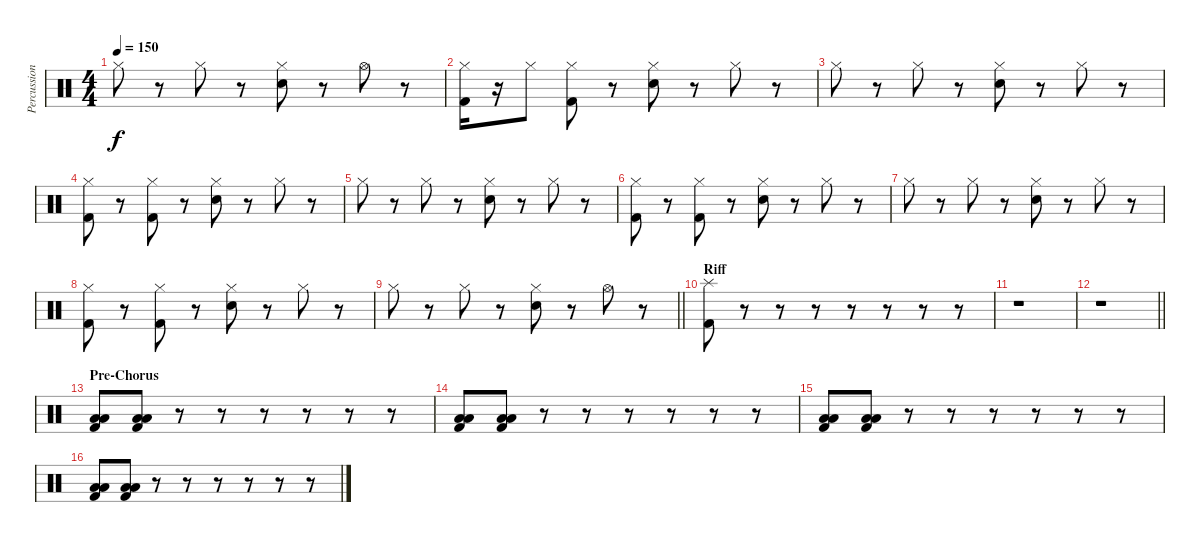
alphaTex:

\track ("Percussion" "Percussion") {instrument percussion}
\staff {score}
\articulation defaults
\ts (4 4)
\tempo 150
\clef neutral
\ks c "Hi-Hat (closed)".8{dy f}
r.8 "Hi-Hat (closed)".8 r.8 ("Hi-Hat (closed)" "Snare (hit) 2").8 r.8 "Hi-Hat (open)".8 r.8 |
("Hi-Hat (closed)" "Kick (hit) 2").16 r.16 "Hi-Hat (closed)".8 ("Hi-Hat (closed)" "Kick (hit) 2").8 r.8 ("Hi-Hat (closed)" "Snare (hit) 2").8 r.8 "Hi-Hat (closed)".8 r.8 |
"Hi-Hat (closed)".8 r.8 "Hi-Hat (closed)".8 r.8 ("Hi-Hat (closed)" "Snare (hit) 2").8 r.8 "Hi-Hat (closed)".8 r.8 |
("Hi-Hat (closed)" "Kick (hit) 2").8 r.8 ("Hi-Hat (closed)" "Kick (hit) 2").8 r.8 ("Hi-Hat (closed)" "Snare (hit) 2").8 r.8 "Hi-Hat (closed)".8 r.8 |
"Hi-Hat (closed)".8 r.8 "Hi-Hat (closed)".8 r.8 ("Hi-Hat (closed)" "Snare (hit) 2").8 r.8 "Hi-Hat (closed)".8 r.8 |
("Hi-Hat (closed)" "Kick (hit) 2").8 r.8 ("Hi-Hat (closed)" "Kick (hit) 2").8 r.8 ("Hi-Hat (closed)" "Snare (hit) 2").8 r.8 "Hi-Hat (closed)".8 r.8 |
"Hi-Hat (closed)".8 r.8 "Hi-Hat (closed)".8 r.8 ("Hi-Hat (closed)" "Snare (hit) 2").8 r.8 "Hi-Hat (closed)".8 r.8 |
("Hi-Hat (closed)" "Kick (hit) 2").8 r.8 ("Hi-Hat (closed)" "Kick (hit) 2").8 r.8 ("Hi-Hat (closed)" "Snare (hit) 2").8 r.8 "Hi-Hat (closed)".8 r.8 |
\barLineRight lightlight "Hi-Hat (closed)".8
r.8 "Hi-Hat (closed)".8 r.8 ("Hi-Hat (closed)" "Snare (hit) 2").8 r.8 "Hi-Hat (open)".8 r.8 |
\section ("" "Riff")
("Splash (hit)" "Kick (hit) 2").8 r.8 r.8 r.8 r.8 r.8 r.8 r.8 |
r.1 |
\barLineRight lightlight
r.1 |
\section ("" "Pre-Chorus")
("Low Tom (hit)" "Low Floor Tom (hit)" "Kick (hit) 2").8 ("Low Tom (hit)" "Low Floor Tom (hit)" "Kick (hit) 2").8 r.8 r.8 r.8 r.8 r.8 r.8 |
("Low Tom (hit)" "Low Floor Tom (hit)" "Kick (hit) 2").8 ("Low Tom (hit)" "Low Floor Tom (hit)" "Kick (hit) 2").8 r.8 r.8 r.8 r.8 r.8 r.8 |
("Low Tom (hit)" "Low Floor Tom (hit)" "Kick (hit) 2").8 ("Low Tom (hit)" "Low Floor Tom (hit)" "Kick (hit) 2").8 r.8 r.8 r.8 r.8 r.8 r.8 |
("Low Tom (hit)" "Low Floor Tom (hit)" "Kick (hit) 2").8 ("Low Tom (hit)" "Low Floor Tom (hit)" "Kick (hit) 2").8 r.8 r.8 r.8 r.8 r.8 r.8
